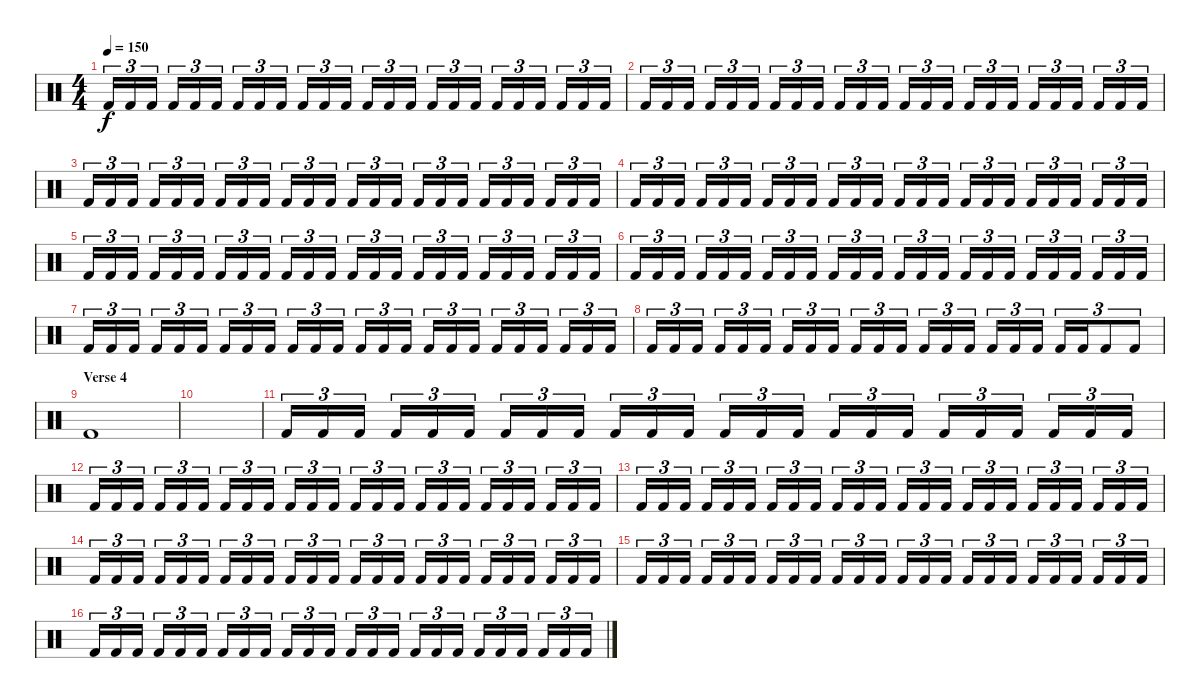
\track "" {instrument percussion}
\staff {score}
\articulation defaults
\ts (4 4)
\tempo 150
\clef neutral
\ks c "Kick (hit) 2".16{tu (3 2) dy f} "Kick (hit) 2".16{tu (3 2)} "Kick (hit) 2".16{tu (3 2)} "Kick (hit) 2".16{tu (3 2)} "Kick (hit) 2".16{tu (3 2)} "Kick (hit) 2".16{tu (3 2)} "Kick (hit) 2".16{tu (3 2)} "Kick (hit) 2".16{tu (3 2)} "Kick (hit) 2".16{tu (3 2)} "Kick (hit) 2".16{tu (3 2)} "Kick (hit) 2".16{tu (3 2)} "Kick (hit) 2".16{tu (3 2)} "Kick (hit) 2".16{tu (3 2)} "Kick (hit) 2".16{tu (3 2)} "Kick (hit) 2".16{tu (3 2)} "Kick (hit) 2".16{tu (3 2)} "Kick (hit) 2".16{tu (3 2)} "Kick (hit) 2".16{tu (3 2)} "Kick (hit) 2".16{tu (3 2)} "Kick (hit) 2".16{tu (3 2)} "Kick (hit) 2".16{tu (3 2)} "Kick (hit) 2".16{tu (3 2)} "Kick (hit) 2".16{tu (3 2)} "Kick (hit) 2".16{tu (3 2)}
|
"Kick (hit) 2".16{tu (3 2)} "Kick (hit) 2".16{tu (3 2)} "Kick (hit) 2".16{tu (3 2)} "Kick (hit) 2".16{tu (3 2)} "Kick (hit) 2".16{tu (3 2)} "Kick (hit) 2".16{tu (3 2)} "Kick (hit) 2".16{tu (3 2)} "Kick (hit) 2".16{tu (3 2)} "Kick (hit) 2".16{tu (3 2)} "Kick (hit) 2".16{tu (3 2)} "Kick (hit) 2".16{tu (3 2)} "Kick (hit) 2".16{tu (3 2)} "Kick (hit) 2".16{tu (3 2)} "Kick (hit) 2".16{tu (3 2)} "Kick (hit) 2".16{tu (3 2)} "Kick (hit) 2".16{tu (3 2)} "Kick (hit) 2".16{tu (3 2)} "Kick (hit) 2".16{tu (3 2)} "Kick (hit) 2".16{tu (3 2)} "Kick (hit) 2".16{tu (3 2)} "Kick (hit) 2".16{tu (3 2)} "Kick (hit) 2".16{tu (3 2)} "Kick (hit) 2".16{tu (3 2)} "Kick (hit) 2".16{tu (3 2)} |
"Kick (hit) 2".16{tu (3 2)} "Kick (hit) 2".16{tu (3 2)} "Kick (hit) 2".16{tu (3 2)} "Kick (hit) 2".16{tu (3 2)} "Kick (hit) 2".16{tu (3 2)} "Kick (hit) 2".16{tu (3 2)} "Kick (hit) 2".16{tu (3 2)} "Kick (hit) 2".16{tu (3 2)} "Kick (hit) 2".16{tu (3 2)} "Kick (hit) 2".16{tu (3 2)} "Kick (hit) 2".16{tu (3 2)} "Kick (hit) 2".16{tu (3 2)} "Kick (hit) 2".16{tu (3 2)} "Kick (hit) 2".16{tu (3 2)} "Kick (hit) 2".16{tu (3 2)} "Kick (hit) 2".16{tu (3 2)} "Kick (hit) 2".16{tu (3 2)} "Kick (hit) 2".16{tu (3 2)} "Kick (hit) 2".16{tu (3 2)} "Kick (hit) 2".16{tu (3 2)} "Kick (hit) 2".16{tu (3 2)} "Kick (hit) 2".16{tu (3 2)} "Kick (hit) 2".16{tu (3 2)} "Kick (hit) 2".16{tu (3 2)} |
"Kick (hit) 2".16{tu (3 2)} "Kick (hit) 2".16{tu (3 2)} "Kick (hit) 2".16{tu (3 2)} "Kick (hit) 2".16{tu (3 2)} "Kick (hit) 2".16{tu (3 2)} "Kick (hit) 2".16{tu (3 2)} "Kick (hit) 2".16{tu (3 2)} "Kick (hit) 2".16{tu (3 2)} "Kick (hit) 2".16{tu (3 2)} "Kick (hit) 2".16{tu (3 2)} "Kick (hit) 2".16{tu (3 2)} "Kick (hit) 2".16{tu (3 2)} "Kick (hit) 2".16{tu (3 2)} "Kick (hit) 2".16{tu (3 2)} "Kick (hit) 2".16{tu (3 2)} "Kick (hit) 2".16{tu (3 2)} "Kick (hit) 2".16{tu (3 2)} "Kick (hit) 2".16{tu (3 2)} "Kick (hit) 2".16{tu (3 2)} "Kick (hit) 2".16{tu (3 2)} "Kick (hit) 2".16{tu (3 2)} "Kick (hit) 2".16{tu (3 2)} "Kick (hit) 2".16{tu (3 2)} "Kick (hit) 2".16{tu (3 2)} |
"Kick (hit) 2".16{tu (3 2)} "Kick (hit) 2".16{tu (3 2)} "Kick (hit) 2".16{tu (3 2)} "Kick (hit) 2".16{tu (3 2)} "Kick (hit) 2".16{tu (3 2)} "Kick (hit) 2".16{tu (3 2)} "Kick (hit) 2".16{tu (3 2)} "Kick (hit) 2".16{tu (3 2)} "Kick (hit) 2".16{tu (3 2)} "Kick (hit) 2".16{tu (3 2)} "Kick (hit) 2".16{tu (3 2)} "Kick (hit) 2".16{tu (3 2)} "Kick (hit) 2".16{tu (3 2)} "Kick (hit) 2".16{tu (3 2)} "Kick (hit) 2".16{tu (3 2)} "Kick (hit) 2".16{tu (3 2)} "Kick (hit) 2".16{tu (3 2)} "Kick (hit) 2".16{tu (3 2)} "Kick (hit) 2".16{tu (3 2)} "Kick (hit) 2".16{tu (3 2)} "Kick (hit) 2".16{tu (3 2)} "Kick (hit) 2".16{tu (3 2)} "Kick (hit) 2".16{tu (3 2)} "Kick (hit) 2".16{tu (3 2)} |
"Kick (hit) 2".16{tu (3 2)} "Kick (hit) 2".16{tu (3 2)} "Kick (hit) 2".16{tu (3 2)} "Kick (hit) 2".16{tu (3 2)} "Kick (hit) 2".16{tu (3 2)} "Kick (hit) 2".16{tu (3 2)} "Kick (hit) 2".16{tu (3 2)} "Kick (hit) 2".16{tu (3 2)} "Kick (hit) 2".16{tu (3 2)} "Kick (hit) 2".16{tu (3 2)} "Kick (hit) 2".16{tu (3 2)} "Kick (hit) 2".16{tu (3 2)} "Kick (hit) 2".16{tu (3 2)} "Kick (hit) 2".16{tu (3 2)} "Kick (hit) 2".16{tu (3 2)} "Kick (hit) 2".16{tu (3 2)} "Kick (hit) 2".16{tu (3 2)} "Kick (hit) 2".16{tu (3 2)} "Kick (hit) 2".16{tu (3 2)} "Kick (hit) 2".16{tu (3 2)} "Kick (hit) 2".16{tu (3 2)} "Kick (hit) 2".16{tu (3 2)} "Kick (hit) 2".16{tu (3 2)} "Kick (hit) 2".16{tu (3 2)} |
"Kick (hit) 2".16{tu (3 2)} "Kick (hit) 2".16{tu (3 2)} "Kick (hit) 2".16{tu (3 2)} "Kick (hit) 2".16{tu (3 2)} "Kick (hit) 2".16{tu (3 2)} "Kick (hit) 2".16{tu (3 2)} "Kick (hit) 2".16{tu (3 2)} "Kick (hit) 2".16{tu (3 2)} "Kick (hit) 2".16{tu (3 2)} "Kick (hit) 2".16{tu (3 2)} "Kick (hit) 2".16{tu (3 2)} "Kick (hit) 2".16{tu (3 2)} "Kick (hit) 2".16{tu (3 2)} "Kick (hit) 2".16{tu (3 2)} "Kick (hit) 2".16{tu (3 2)} "Kick (hit) 2".16{tu (3 2)} "Kick (hit) 2".16{tu (3 2)} "Kick (hit) 2".16{tu (3 2)} "Kick (hit) 2".16{tu (3 2)} "Kick (hit) 2".16{tu (3 2)} "Kick (hit) 2".16{tu (3 2)} "Kick (hit) 2".16{tu (3 2)} "Kick (hit) 2".16{tu (3 2)} "Kick (hit) 2".16{tu (3 2)} |
"Kick (hit) 2".16{tu (3 2)} "Kick (hit) 2".16{tu (3 2)} "Kick (hit) 2".16{tu (3 2)} "Kick (hit) 2".16{tu (3 2)} "Kick (hit) 2".16{tu (3 2)} "Kick (hit) 2".16{tu (3 2)} "Kick (hit) 2".16{tu (3 2)} "Kick (hit) 2".16{tu (3 2)} "Kick (hit) 2".16{tu (3 2)} "Kick (hit) 2".16{tu (3 2)} "Kick (hit) 2".16{tu (3 2)} "Kick (hit) 2".16{tu (3 2)} "Kick (hit) 2".16{tu (3 2)} "Kick (hit) 2".16{tu (3 2)} "Kick (hit) 2".16{tu (3 2)} "Kick (hit) 2".16{tu (3 2)} "Kick (hit) 2".16{tu (3 2)} "Kick (hit) 2".16{tu (3 2)} "Kick (hit) 2".16{tu (3 2)} "Kick (hit) 2".16{tu (3 2)} "Kick (hit) 2".8{tu (3 2)} "Kick (hit) 2".8{tu (3 2)} |
\section ("" "Verse 4")
"Kick (hit) 2".1 |
|
"Kick (hit) 2".16{tu (3 2)} "Kick (hit) 2".16{tu (3 2)} "Kick (hit) 2".16{tu (3 2)} "Kick (hit) 2".16{tu (3 2)} "Kick (hit) 2".16{tu (3 2)} "Kick (hit) 2".16{tu (3 2)} "Kick (hit) 2".16{tu (3 2)} "Kick (hit) 2".16{tu (3 2)} "Kick (hit) 2".16{tu (3 2)} "Kick (hit) 2".16{tu (3 2)} "Kick (hit) 2".16{tu (3 2)} "Kick (hit) 2".16{tu (3 2)} "Kick (hit) 2".16{tu (3 2)} "Kick (hit) 2".16{tu (3 2)} "Kick (hit) 2".16{tu (3 2)} "Kick (hit) 2".16{tu (3 2)} "Kick (hit) 2".16{tu (3 2)} "Kick (hit) 2".16{tu (3 2)} "Kick (hit) 2".16{tu (3 2)} "Kick (hit) 2".16{tu (3 2)} "Kick (hit) 2".16{tu (3 2)} "Kick (hit) 2".16{tu (3 2)} "Kick (hit) 2".16{tu (3 2)} "Kick (hit) 2".16{tu (3 2)} |
"Kick (hit) 2".16{tu (3 2)} "Kick (hit) 2".16{tu (3 2)} "Kick (hit) 2".16{tu (3 2)} "Kick (hit) 2".16{tu (3 2)} "Kick (hit) 2".16{tu (3 2)} "Kick (hit) 2".16{tu (3 2)} "Kick (hit) 2".16{tu (3 2)} "Kick (hit) 2".16{tu (3 2)} "Kick (hit) 2".16{tu (3 2)} "Kick (hit) 2".16{tu (3 2)} "Kick (hit) 2".16{tu (3 2)} "Kick (hit) 2".16{tu (3 2)} "Kick (hit) 2".16{tu (3 2)} "Kick (hit) 2".16{tu (3 2)} "Kick (hit) 2".16{tu (3 2)} "Kick (hit) 2".16{tu (3 2)} "Kick (hit) 2".16{tu (3 2)} "Kick (hit) 2".16{tu (3 2)} "Kick (hit) 2".16{tu (3 2)} "Kick (hit) 2".16{tu (3 2)} "Kick (hit) 2".16{tu (3 2)} "Kick (hit) 2".16{tu (3 2)} "Kick (hit) 2".16{tu (3 2)} "Kick (hit) 2".16{tu (3 2)} |
"Kick (hit) 2".16{tu (3 2)} "Kick (hit) 2".16{tu (3 2)} "Kick (hit) 2".16{tu (3 2)} "Kick (hit) 2".16{tu (3 2)} "Kick (hit) 2".16{tu (3 2)} "Kick (hit) 2".16{tu (3 2)} "Kick (hit) 2".16{tu (3 2)} "Kick (hit) 2".16{tu (3 2)} "Kick (hit) 2".16{tu (3 2)} "Kick (hit) 2".16{tu (3 2)} "Kick (hit) 2".16{tu (3 2)} "Kick (hit) 2".16{tu (3 2)} "Kick (hit) 2".16{tu (3 2)} "Kick (hit) 2".16{tu (3 2)} "Kick (hit) 2".16{tu (3 2)} "Kick (hit) 2".16{tu (3 2)} "Kick (hit) 2".16{tu (3 2)} "Kick (hit) 2".16{tu (3 2)} "Kick (hit) 2".16{tu (3 2)} "Kick (hit) 2".16{tu (3 2)} "Kick (hit) 2".16{tu (3 2)} "Kick (hit) 2".16{tu (3 2)} "Kick (hit) 2".16{tu (3 2)} "Kick (hit) 2".16{tu (3 2)} |
"Kick (hit) 2".16{tu (3 2)} "Kick (hit) 2".16{tu (3 2)} "Kick (hit) 2".16{tu (3 2)} "Kick (hit) 2".16{tu (3 2)} "Kick (hit) 2".16{tu (3 2)} "Kick (hit) 2".16{tu (3 2)} "Kick (hit) 2".16{tu (3 2)} "Kick (hit) 2".16{tu (3 2)} "Kick (hit) 2".16{tu (3 2)} "Kick (hit) 2".16{tu (3 2)} "Kick (hit) 2".16{tu (3 2)} "Kick (hit) 2".16{tu (3 2)} "Kick (hit) 2".16{tu (3 2)} "Kick (hit) 2".16{tu (3 2)} "Kick (hit) 2".16{tu (3 2)} "Kick (hit) 2".16{tu (3 2)} "Kick (hit) 2".16{tu (3 2)} "Kick (hit) 2".16{tu (3 2)} "Kick (hit) 2".16{tu (3 2)} "Kick (hit) 2".16{tu (3 2)} "Kick (hit) 2".16{tu (3 2)} "Kick (hit) 2".16{tu (3 2)} "Kick (hit) 2".16{tu (3 2)} "Kick (hit) 2".16{tu (3 2)} |
"Kick (hit) 2".16{tu (3 2)} "Kick (hit) 2".16{tu (3 2)} "Kick (hit) 2".16{tu (3 2)} "Kick (hit) 2".16{tu (3 2)} "Kick (hit) 2".16{tu (3 2)} "Kick (hit) 2".16{tu (3 2)} "Kick (hit) 2".16{tu (3 2)} "Kick (hit) 2".16{tu (3 2)} "Kick (hit) 2".16{tu (3 2)} "Kick (hit) 2".16{tu (3 2)} "Kick (hit) 2".16{tu (3 2)} "Kick (hit) 2".16{tu (3 2)} "Kick (hit) 2".16{tu (3 2)} "Kick (hit) 2".16{tu (3 2)} "Kick (hit) 2".16{tu (3 2)} "Kick (hit) 2".16{tu (3 2)} "Kick (hit) 2".16{tu (3 2)} "Kick (hit) 2".16{tu (3 2)} "Kick (hit) 2".16{tu (3 2)} "Kick (hit) 2".16{tu (3 2)} "Kick (hit) 2".16{tu (3 2)} "Kick (hit) 2".16{tu (3 2)} "Kick (hit) 2".16{tu (3 2)} "Kick (hit) 2".16{tu (3 2)} |
"Kick (hit) 2".16{tu (3 2)} "Kick (hit) 2".16{tu (3 2)} "Kick (hit) 2".16{tu (3 2)} "Kick (hit) 2".16{tu (3 2)} "Kick (hit) 2".16{tu (3 2)} "Kick (hit) 2".16{tu (3 2)} "Kick (hit) 2".16{tu (3 2)} "Kick (hit) 2".16{tu (3 2)} "Kick (hit) 2".16{tu (3 2)} "Kick (hit) 2".16{tu (3 2)} "Kick (hit) 2".16{tu (3 2)} "Kick (hit) 2".16{tu (3 2)} "Kick (hit) 2".16{tu (3 2)} "Kick (hit) 2".16{tu (3 2)} "Kick (hit) 2".16{tu (3 2)} "Kick (hit) 2".16{tu (3 2)} "Kick (hit) 2".16{tu (3 2)} "Kick (hit) 2".16{tu (3 2)} "Kick (hit) 2".16{tu (3 2)} "Kick (hit) 2".16{tu (3 2)} "Kick (hit) 2".16{tu (3 2)} "Kick (hit) 2".16{tu (3 2)} "Kick (hit) 2".16{tu (3 2)} "Kick (hit) 2".16{tu (3 2)}
